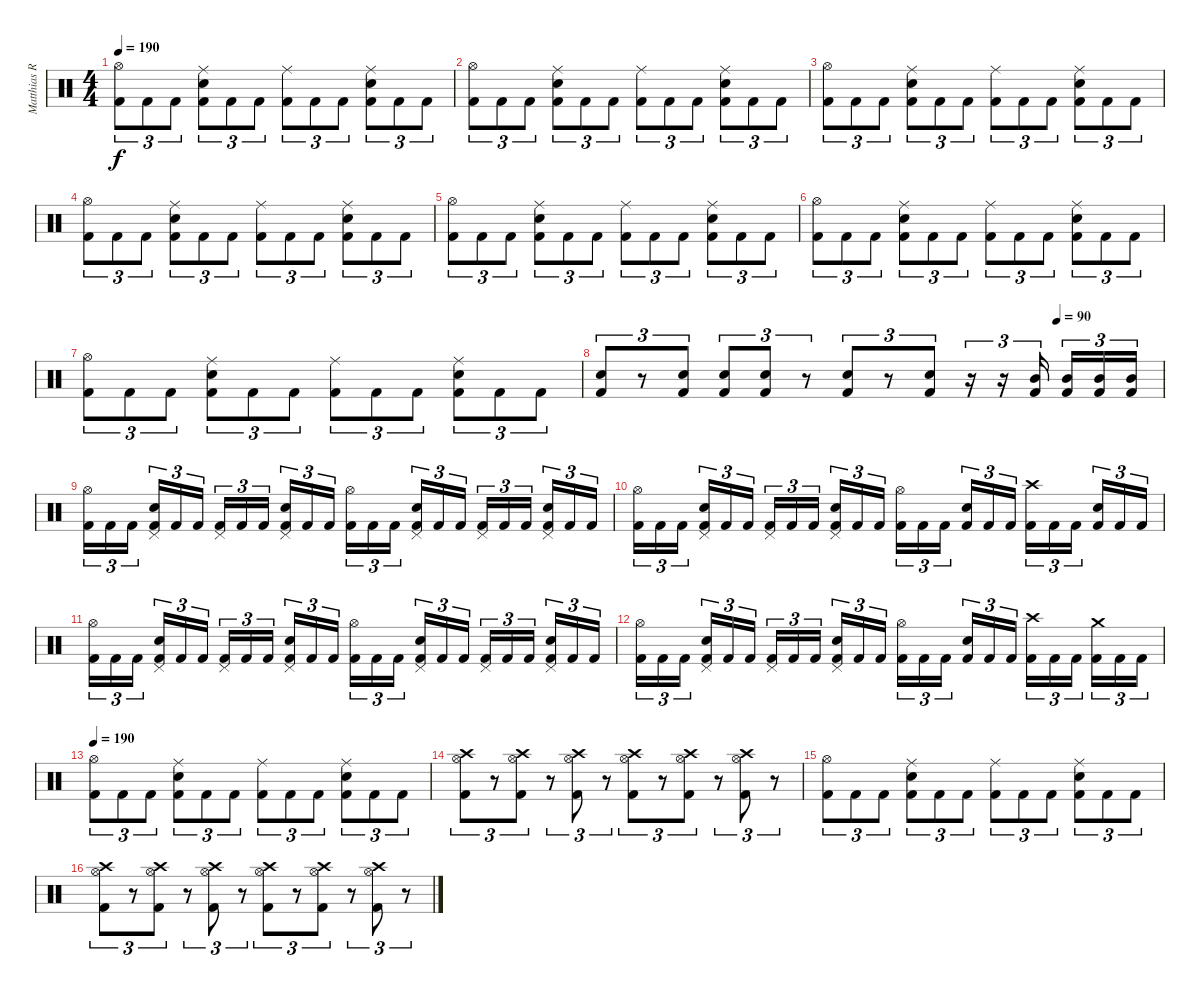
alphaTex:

\track ("Matthias R." "Matthias R") {instrument percussion}
\staff {score}
\articulation defaults
\ts (4 4)
\tempo 190
\clef neutral
\ks c
("Kick (hit) 2" "Hi-Hat (open)").8{tu (3 2) dy f} "Kick (hit) 2".8{tu (3 2)} "Kick (hit) 2".8{tu (3 2)} ("Kick (hit) 2" "Snare (hit) 2" "Ride (middle)").8{tu (3 2)} "Kick (hit) 2".8{tu (3 2)} "Kick (hit) 2".8{tu (3 2)} ("Kick (hit) 2" "Ride (middle)").8{tu (3 2)} "Kick (hit) 2".8{tu (3 2)} "Kick (hit) 2".8{tu (3 2)} ("Kick (hit) 2" "Snare (hit) 2" "Ride (middle)").8{tu (3 2)} "Kick (hit) 2".8{tu (3 2)} "Kick (hit) 2".8{tu (3 2)} |
("Kick (hit) 2" "Hi-Hat (open)").8{tu (3 2)} "Kick (hit) 2".8{tu (3 2)} "Kick (hit) 2".8{tu (3 2)} ("Kick (hit) 2" "Snare (hit) 2" "Ride (middle)").8{tu (3 2)} "Kick (hit) 2".8{tu (3 2)} "Kick (hit) 2".8{tu (3 2)} ("Kick (hit) 2" "Ride (middle)").8{tu (3 2)} "Kick (hit) 2".8{tu (3 2)} "Kick (hit) 2".8{tu (3 2)} ("Kick (hit) 2" "Snare (hit) 2" "Ride (middle)").8{tu (3 2)} "Kick (hit) 2".8{tu (3 2)} "Kick (hit) 2".8{tu (3 2)} |
("Kick (hit) 2" "Hi-Hat (open)").8{tu (3 2)} "Kick (hit) 2".8{tu (3 2)} "Kick (hit) 2".8{tu (3 2)} ("Kick (hit) 2" "Snare (hit) 2" "Ride (middle)").8{tu (3 2)} "Kick (hit) 2".8{tu (3 2)} "Kick (hit) 2".8{tu (3 2)} ("Kick (hit) 2" "Ride (middle)").8{tu (3 2)} "Kick (hit) 2".8{tu (3 2)} "Kick (hit) 2".8{tu (3 2)} ("Kick (hit) 2" "Snare (hit) 2" "Ride (middle)").8{tu (3 2)} "Kick (hit) 2".8{tu (3 2)} "Kick (hit) 2".8{tu (3 2)} |
("Kick (hit) 2" "Hi-Hat (open)").8{tu (3 2)} "Kick (hit) 2".8{tu (3 2)} "Kick (hit) 2".8{tu (3 2)} ("Kick (hit) 2" "Snare (hit) 2" "Ride (middle)").8{tu (3 2)} "Kick (hit) 2".8{tu (3 2)} "Kick (hit) 2".8{tu (3 2)} ("Kick (hit) 2" "Ride (middle)").8{tu (3 2)} "Kick (hit) 2".8{tu (3 2)} "Kick (hit) 2".8{tu (3 2)} ("Kick (hit) 2" "Snare (hit) 2" "Ride (middle)").8{tu (3 2)} "Kick (hit) 2".8{tu (3 2)} "Kick (hit) 2".8{tu (3 2)} |
("Kick (hit) 2" "Hi-Hat (open)").8{tu (3 2)} "Kick (hit) 2".8{tu (3 2)} "Kick (hit) 2".8{tu (3 2)} ("Kick (hit) 2" "Snare (hit) 2" "Ride (middle)").8{tu (3 2)} "Kick (hit) 2".8{tu (3 2)} "Kick (hit) 2".8{tu (3 2)} ("Kick (hit) 2" "Ride (middle)").8{tu (3 2)} "Kick (hit) 2".8{tu (3 2)} "Kick (hit) 2".8{tu (3 2)} ("Kick (hit) 2" "Snare (hit) 2" "Ride (middle)").8{tu (3 2)} "Kick (hit) 2".8{tu (3 2)} "Kick (hit) 2".8{tu (3 2)} |
("Kick (hit) 2" "Hi-Hat (open)").8{tu (3 2)} "Kick (hit) 2".8{tu (3 2)} "Kick (hit) 2".8{tu (3 2)} ("Kick (hit) 2" "Snare (hit) 2" "Ride (middle)").8{tu (3 2)} "Kick (hit) 2".8{tu (3 2)} "Kick (hit) 2".8{tu (3 2)} ("Kick (hit) 2" "Ride (middle)").8{tu (3 2)} "Kick (hit) 2".8{tu (3 2)} "Kick (hit) 2".8{tu (3 2)} ("Kick (hit) 2" "Snare (hit) 2" "Ride (middle)").8{tu (3 2)} "Kick (hit) 2".8{tu (3 2)} "Kick (hit) 2".8{tu (3 2)} |
("Kick (hit) 2" "Hi-Hat (open)").8{tu (3 2)} "Kick (hit) 2".8{tu (3 2)} "Kick (hit) 2".8{tu (3 2)} ("Kick (hit) 2" "Snare (hit) 2" "Ride (middle)").8{tu (3 2)} "Kick (hit) 2".8{tu (3 2)} "Kick (hit) 2".8{tu (3 2)} ("Kick (hit) 2" "Ride (middle)").8{tu (3 2)} "Kick (hit) 2".8{tu (3 2)} "Kick (hit) 2".8{tu (3 2)} ("Kick (hit) 2" "Snare (hit) 2" "Ride (middle)").8{tu (3 2)} "Kick (hit) 2".8{tu (3 2)} "Kick (hit) 2".8{tu (3 2)} |
\tempo (90 0.8125)
("Kick (hit) 2" "Snare (hit) 2").8{tu (3 2)} r.8{tu (3 2)} ("Kick (hit) 2" "Snare (hit) 2").8{tu (3 2)} ("Kick (hit) 2" "Snare (hit) 2").8{tu (3 2)} ("Kick (hit) 2" "Snare (hit) 2").8{tu (3 2)} r.8{tu (3 2)} ("Kick (hit) 2" "Snare (hit) 2").8{tu (3 2)} r.8{tu (3 2)} ("Kick (hit) 2" "Snare (hit) 2").8{tu (3 2)} r.16{tu (3 2)} r.16{tu (3 2)} ("Kick (hit) 2" "Mid Tom (hit)").16{tu (3 2) beam splitsecondary} ("Kick (hit) 2" "Mid Tom (hit)").16{tu (3 2)} ("Kick (hit) 2" "Mid Tom (hit)").16{tu (3 2)} ("Kick (hit) 2" "Mid Tom (hit)").16{tu (3 2)} |
("Kick (hit) 2" "Hi-Hat (open)").16{tu (3 2)} "Kick (hit) 2".16{tu (3 2)} "Kick (hit) 2".16{tu (3 2) beam splitsecondary} ("Kick (hit) 2" "Snare (hit) 2" "Pedal Hi-Hat (hit)").16{tu (3 2)} "Kick (hit) 2".16{tu (3 2)} "Kick (hit) 2".16{tu (3 2)} ("Kick (hit) 2" "Pedal Hi-Hat (hit)").16{tu (3 2)} "Kick (hit) 2".16{tu (3 2)} "Kick (hit) 2".16{tu (3 2) beam splitsecondary} ("Kick (hit) 2" "Snare (hit) 2" "Pedal Hi-Hat (hit)").16{tu (3 2)} "Kick (hit) 2".16{tu (3 2)} "Kick (hit) 2".16{tu (3 2)} ("Kick (hit) 2" "Hi-Hat (open)").16{tu (3 2)} "Kick (hit) 2".16{tu (3 2)} "Kick (hit) 2".16{tu (3 2) beam splitsecondary} ("Kick (hit) 2" "Snare (hit) 2" "Pedal Hi-Hat (hit)").16{tu (3 2)} "Kick (hit) 2".16{tu (3 2)} "Kick (hit) 2".16{tu (3 2)} ("Kick (hit) 2" "Pedal Hi-Hat (hit)").16{tu (3 2)} "Kick (hit) 2".16{tu (3 2)} "Kick (hit) 2".16{tu (3 2) beam splitsecondary} ("Kick (hit) 2" "Snare (hit) 2" "Pedal Hi-Hat (hit)").16{tu (3 2)} "Kick (hit) 2".16{tu (3 2)} "Kick (hit) 2".16{tu (3 2)} |
("Kick (hit) 2" "Hi-Hat (open)").16{tu (3 2)} "Kick (hit) 2".16{tu (3 2)} "Kick (hit) 2".16{tu (3 2) beam splitsecondary} ("Kick (hit) 2" "Snare (hit) 2" "Pedal Hi-Hat (hit)").16{tu (3 2)} "Kick (hit) 2".16{tu (3 2)} "Kick (hit) 2".16{tu (3 2)} ("Kick (hit) 2" "Pedal Hi-Hat (hit)").16{tu (3 2)} "Kick (hit) 2".16{tu (3 2)} "Kick (hit) 2".16{tu (3 2) beam splitsecondary} ("Kick (hit) 2" "Snare (hit) 2" "Pedal Hi-Hat (hit)").16{tu (3 2)} "Kick (hit) 2".16{tu (3 2)} "Kick (hit) 2".16{tu (3 2)} ("Kick (hit) 2" "Hi-Hat (open)").16{tu (3 2)} "Kick (hit) 2".16{tu (3 2)} "Kick (hit) 2".16{tu (3 2) beam splitsecondary} ("Kick (hit) 2" "Snare (hit) 2").16{tu (3 2)} "Kick (hit) 2".16{tu (3 2)} "Kick (hit) 2".16{tu (3 2)} ("Kick (hit) 2" "Crash high (hit)").16{tu (3 2)} "Kick (hit) 2".16{tu (3 2)} "Kick (hit) 2".16{tu (3 2) beam splitsecondary} ("Kick (hit) 2" "Snare (hit) 2").16{tu (3 2)} "Kick (hit) 2".16{tu (3 2)} "Kick (hit) 2".16{tu (3 2)} |
("Kick (hit) 2" "Hi-Hat (open)").16{tu (3 2)} "Kick (hit) 2".16{tu (3 2)} "Kick (hit) 2".16{tu (3 2) beam splitsecondary} ("Kick (hit) 2" "Snare (hit) 2" "Pedal Hi-Hat (hit)").16{tu (3 2)} "Kick (hit) 2".16{tu (3 2)} "Kick (hit) 2".16{tu (3 2)} ("Kick (hit) 2" "Pedal Hi-Hat (hit)").16{tu (3 2)} "Kick (hit) 2".16{tu (3 2)} "Kick (hit) 2".16{tu (3 2) beam splitsecondary} ("Kick (hit) 2" "Snare (hit) 2" "Pedal Hi-Hat (hit)").16{tu (3 2)} "Kick (hit) 2".16{tu (3 2)} "Kick (hit) 2".16{tu (3 2)} ("Kick (hit) 2" "Hi-Hat (open)").16{tu (3 2)} "Kick (hit) 2".16{tu (3 2)} "Kick (hit) 2".16{tu (3 2) beam splitsecondary} ("Kick (hit) 2" "Snare (hit) 2" "Pedal Hi-Hat (hit)").16{tu (3 2)} "Kick (hit) 2".16{tu (3 2)} "Kick (hit) 2".16{tu (3 2)} ("Kick (hit) 2" "Pedal Hi-Hat (hit)").16{tu (3 2)} "Kick (hit) 2".16{tu (3 2)} "Kick (hit) 2".16{tu (3 2) beam splitsecondary} ("Kick (hit) 2" "Snare (hit) 2" "Pedal Hi-Hat (hit)").16{tu (3 2)} "Kick (hit) 2".16{tu (3 2)} "Kick (hit) 2".16{tu (3 2)} |
("Kick (hit) 2" "Hi-Hat (open)").16{tu (3 2)} "Kick (hit) 2".16{tu (3 2)} "Kick (hit) 2".16{tu (3 2) beam splitsecondary} ("Kick (hit) 2" "Snare (hit) 2" "Pedal Hi-Hat (hit)").16{tu (3 2)} "Kick (hit) 2".16{tu (3 2)} "Kick (hit) 2".16{tu (3 2)} ("Kick (hit) 2" "Pedal Hi-Hat (hit)").16{tu (3 2)} "Kick (hit) 2".16{tu (3 2)} "Kick (hit) 2".16{tu (3 2) beam splitsecondary} ("Kick (hit) 2" "Snare (hit) 2" "Pedal Hi-Hat (hit)").16{tu (3 2)} "Kick (hit) 2".16{tu (3 2)} "Kick (hit) 2".16{tu (3 2)} ("Kick (hit) 2" "Hi-Hat (open)").16{tu (3 2)} "Kick (hit) 2".16{tu (3 2)} "Kick (hit) 2".16{tu (3 2) beam splitsecondary} ("Kick (hit) 2" "Snare (hit) 2").16{tu (3 2)} "Kick (hit) 2".16{tu (3 2)} "Kick (hit) 2".16{tu (3 2)} ("Kick (hit) 2" "Crash high (hit)").16{tu (3 2)} "Kick (hit) 2".16{tu (3 2)} "Kick (hit) 2".16{tu (3 2) beam splitsecondary} ("Kick (hit) 2" "Crash medium (hit)").16{tu (3 2)} "Kick (hit) 2".16{tu (3 2)} "Kick (hit) 2".16{tu (3 2)} |
\tempo 190
("Kick (hit) 2" "Hi-Hat (open)").8{tu (3 2)} "Kick (hit) 2".8{tu (3 2)} "Kick (hit) 2".8{tu (3 2)} ("Kick (hit) 2" "Snare (hit) 2" "Ride (middle)").8{tu (3 2)} "Kick (hit) 2".8{tu (3 2)} "Kick (hit) 2".8{tu (3 2)} ("Kick (hit) 2" "Ride (middle)").8{tu (3 2)} "Kick (hit) 2".8{tu (3 2)} "Kick (hit) 2".8{tu (3 2)} ("Kick (hit) 2" "Snare (hit) 2" "Ride (middle)").8{tu (3 2)} "Kick (hit) 2".8{tu (3 2)} "Kick (hit) 2".8{tu (3 2)} |
("Kick (hit) 2" "Hi-Hat (open)" "Crash high (hit)").8{tu (3 2)} r.8{tu (3 2)} ("Kick (hit) 2" "Hi-Hat (open)" "Crash high (hit)").8{tu (3 2)} r.8{tu (3 2)} ("Kick (hit) 2" "Hi-Hat (open)" "Crash high (hit)").8{tu (3 2)} r.8{tu (3 2)} ("Kick (hit) 2" "Hi-Hat (open)" "Crash high (hit)").8{tu (3 2)} r.8{tu (3 2)} ("Kick (hit) 2" "Hi-Hat (open)" "Crash high (hit)").8{tu (3 2)} r.8{tu (3 2)} ("Kick (hit) 2" "Hi-Hat (open)" "Crash high (hit)").8{tu (3 2)} r.8{tu (3 2)} |
("Kick (hit) 2" "Hi-Hat (open)").8{tu (3 2)} "Kick (hit) 2".8{tu (3 2)} "Kick (hit) 2".8{tu (3 2)} ("Kick (hit) 2" "Snare (hit) 2" "Ride (middle)").8{tu (3 2)} "Kick (hit) 2".8{tu (3 2)} "Kick (hit) 2".8{tu (3 2)} ("Kick (hit) 2" "Ride (middle)").8{tu (3 2)} "Kick (hit) 2".8{tu (3 2)} "Kick (hit) 2".8{tu (3 2)} ("Kick (hit) 2" "Snare (hit) 2" "Ride (middle)").8{tu (3 2)} "Kick (hit) 2".8{tu (3 2)} "Kick (hit) 2".8{tu (3 2)} |
("Kick (hit) 2" "Hi-Hat (open)" "Crash high (hit)").8{tu (3 2)} r.8{tu (3 2)} ("Kick (hit) 2" "Hi-Hat (open)" "Crash high (hit)").8{tu (3 2)} r.8{tu (3 2)} ("Kick (hit) 2" "Hi-Hat (open)" "Crash high (hit)").8{tu (3 2)} r.8{tu (3 2)} ("Kick (hit) 2" "Hi-Hat (open)" "Crash high (hit)").8{tu (3 2)} r.8{tu (3 2)} ("Kick (hit) 2" "Hi-Hat (open)" "Crash high (hit)").8{tu (3 2)} r.8{tu (3 2)} ("Kick (hit) 2" "Hi-Hat (open)" "Crash high (hit)").8{tu (3 2)} r.8{tu (3 2)}
